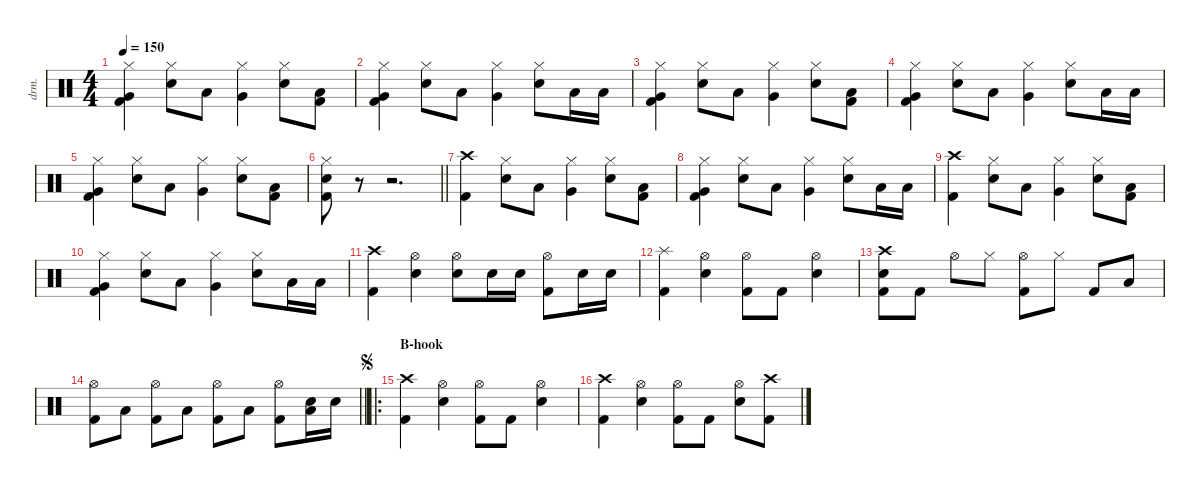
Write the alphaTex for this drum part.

\defaultSystemsLayout 4
\hideDynamics
\bracketExtendMode nobrackets
\otherSystemsTrackNameOrientation horizontal
\track ("Drum" "drm.") {instrument percussion}
\staff {score}
\articulation defaults
\ts (4 4)
\tempo 150
\clef neutral
\ks c
("Hi-Hat (closed)" "Very Low Tom (hit)" "Kick (hit) 2").4{dy ff beam Down} ("Hi-Hat (closed)" "Snare (hit) 2").8{beam Down} "Low Tom (hit)".8{beam Down} ("Hi-Hat (closed)" "Very Low Tom (hit)").4{beam Down} ("Hi-Hat (closed)" "Snare (hit) 2").8{beam Down} ("Low Tom (hit)" "Kick (hit) 2").8{beam Down} |
("Hi-Hat (closed)" "Very Low Tom (hit)" "Kick (hit) 2").4{beam Down} ("Hi-Hat (closed)" "Snare (hit) 2").8{beam Down} "Low Tom (hit)".8{beam Down} ("Hi-Hat (closed)" "Very Low Tom (hit)").4{beam Down} ("Hi-Hat (closed)" "Snare (hit) 2").8{beam Down} "Low Tom (hit)".16{beam Down} "Low Tom (hit)".16{dy fff beam Down} |
("Hi-Hat (closed)" "Very Low Tom (hit)" "Kick (hit) 2").4{dy ff beam Down} ("Hi-Hat (closed)" "Snare (hit) 2").8{beam Down} "Low Tom (hit)".8{beam Down} ("Hi-Hat (closed)" "Very Low Tom (hit)").4{beam Down} ("Hi-Hat (closed)" "Snare (hit) 2").8{beam Down} ("Low Tom (hit)" "Kick (hit) 2").8{beam Down} |
("Hi-Hat (closed)" "Very Low Tom (hit)" "Kick (hit) 2").4{beam Down} ("Hi-Hat (closed)" "Snare (hit) 2").8{beam Down} "Low Tom (hit)".8{beam Down} ("Hi-Hat (closed)" "Very Low Tom (hit)").4{beam Down} ("Hi-Hat (closed)" "Snare (hit) 2").8{beam Down} "Low Tom (hit)".16{beam Down} "Low Tom (hit)".16{dy fff beam Down} |
("Hi-Hat (closed)" "Very Low Tom (hit)" "Kick (hit) 2").4{dy ff beam Down} ("Hi-Hat (closed)" "Snare (hit) 2").8{beam Down} "Low Tom (hit)".8{beam Down} ("Hi-Hat (closed)" "Very Low Tom (hit)").4{beam Down} ("Hi-Hat (closed)" "Snare (hit) 2").8{beam Down} ("Low Tom (hit)" "Kick (hit) 2").8{beam Down} |
\barLineRight lightlight
("Hi-Hat (closed)" "Snare (hit) 2" "Kick (hit) 2").8{dy fff beam Down} r.8{beam Down} r.2{d beam Down} |
("Crash high (hit)" "Kick (hit) 2").4{dy ff beam Down} ("Hi-Hat (closed)" "Snare (hit) 2").8{beam Down} "Low Tom (hit)".8{beam Down} ("Hi-Hat (closed)" "Very Low Tom (hit)").4{beam Down} ("Hi-Hat (closed)" "Snare (hit) 2").8{beam Down} ("Low Tom (hit)" "Kick (hit) 2").8{beam Down} |
("Hi-Hat (closed)" "Very Low Tom (hit)" "Kick (hit) 2").4{beam Down} ("Hi-Hat (closed)" "Snare (hit) 2").8{beam Down} "Low Tom (hit)".8{beam Down} ("Hi-Hat (closed)" "Very Low Tom (hit)").4{beam Down} ("Hi-Hat (closed)" "Snare (hit) 2").8{beam Down} "Low Tom (hit)".16{beam Down} "Low Tom (hit)".16{dy fff beam Down} |
("Crash high (hit)" "Kick (hit) 2").4{dy ff beam Down} ("Hi-Hat (closed)" "Snare (hit) 2").8{beam Down} "Low Tom (hit)".8{beam Down} ("Hi-Hat (closed)" "Very Low Tom (hit)").4{beam Down} ("Hi-Hat (closed)" "Snare (hit) 2").8{beam Down} ("Low Tom (hit)" "Kick (hit) 2").8{beam Down} |
("Hi-Hat (closed)" "Very Low Tom (hit)" "Kick (hit) 2").4{beam Down} ("Hi-Hat (closed)" "Snare (hit) 2").8{beam Down} "Low Tom (hit)".8{beam Down} ("Hi-Hat (closed)" "Very Low Tom (hit)").4{beam Down} ("Hi-Hat (closed)" "Snare (hit) 2").8{beam Down} "Low Tom (hit)".16{beam Down} "Low Tom (hit)".16{dy fff beam Down} |
("Crash high (hit)" "Kick (hit) 2").4{dy mf beam Down} ("Hi-Hat (open)" "Snare (hit) 2").4{beam Down} ("Hi-Hat (open)" "Snare (hit) 2").8{beam Down} "Snare (hit) 2".16{beam Down} "Snare (hit) 2".16{beam Down} ("Hi-Hat (open)" "Kick (hit) 2").8{beam Down} "Snare (hit) 2".16{beam Down} "Snare (hit) 2".16{beam Down} |
("Splash (hit)" "Kick (hit) 2").4{beam Down} ("Hi-Hat (open)" "Snare (hit) 2").4{beam Down} ("Hi-Hat (open)" "Kick (hit) 2").8{beam Down} "Kick (hit) 2".8{beam Down} ("Hi-Hat (open)" "Snare (hit) 2").4{beam Down} |
("Crash high (hit)" "Snare (hit) 2" "Kick (hit) 2").8{beam Down} "Kick (hit) 2".8{beam Down} "Hi-Hat (open)".8{beam Down} "Hi-Hat (closed)".8{beam Down} ("Hi-Hat (open)" "Kick (hit) 2").8{beam Down} "Hi-Hat (closed)".8{beam Down} "Kick (hit) 2".8{beam Up} "Low Tom (hit)".8{dy fff beam Up} |
\barLineRight lightlight
("Hi-Hat (open)" "Kick (hit) 2").8{beam Down} "Low Tom (hit)".8{beam Down} ("Hi-Hat (open)" "Kick (hit) 2").8{beam Down} "Low Tom (hit)".8{beam Down} ("Hi-Hat (open)" "Kick (hit) 2").8{beam Down} "Low Tom (hit)".8{beam Down} ("Hi-Hat (open)" "Kick (hit) 2").8{beam Down} ("Low Tom (hit)" "Snare (hit) 2").16{beam Down} "Snare (hit) 2".16{beam Down} |
\ro
\section ("" "B-hook")
\jump segno
("Crash high (hit)" "Kick (hit) 2").4{dy mf beam Down} ("Hi-Hat (open)" "Snare (hit) 2").4{beam Down} ("Hi-Hat (open)" "Kick (hit) 2").8{beam Down} "Kick (hit) 2".8{dy ff beam Down} ("Hi-Hat (open)" "Snare (hit) 2").4{dy mf beam Down} |
("Crash high (hit)" "Kick (hit) 2").4{beam Down} ("Hi-Hat (open)" "Snare (hit) 2").4{beam Down} ("Hi-Hat (open)" "Kick (hit) 2").8{beam Down} "Kick (hit) 2".8{dy ff beam Down} ("Hi-Hat (open)" "Snare (hit) 2").8{dy mf beam Down} ("Crash high (hit)" "Kick (hit) 2").8{dy ff beam Down}
